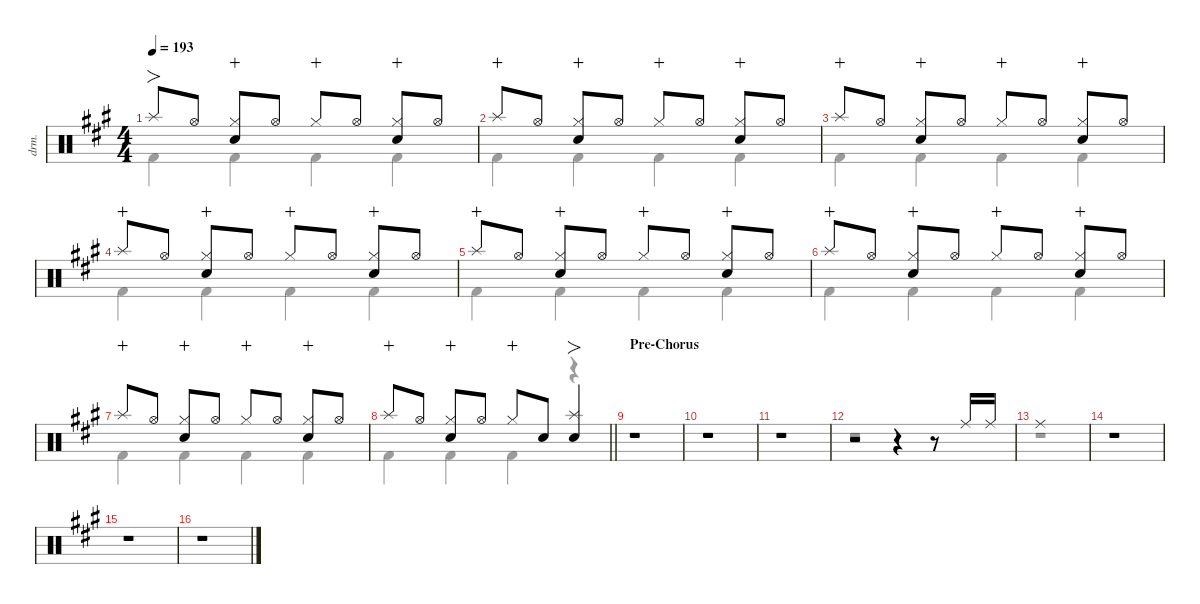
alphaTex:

\defaultSystemsLayout 4
\hideDynamics
\bracketExtendMode nobrackets
\track ("伊地知虹夏" "drm.") {instrument percussion}
\staff {score}
\articulation defaults
\voice
\ts (4 4)
\tempo 193
\clef neutral
\ks a "Splash (hit)"{acc forcenatural}.8{fo dy mf beam Up} "Hi-Hat (open)"{acc forcenatural}.8{beam Up}
("Hi-Hat (closed)"{acc forcenatural} "Snare (hit) 2"{acc forcenatural}).8{wahc beam Up} "Hi-Hat (open)"{acc forcenatural}.8{beam Up} "Hi-Hat (closed)"{acc forcenatural}.8{wahc beam Up} "Hi-Hat (open)"{acc forcenatural}.8{beam Up} ("Hi-Hat (closed)"{acc forcenatural} "Snare (hit) 2"{acc forcenatural}).8{wahc beam Up} "Hi-Hat (open)"{acc forcenatural}.8{beam Up} |
"Splash (hit)"{acc forcenatural}.8{wahc beam Up} "Hi-Hat (open)"{acc forcenatural}.8{beam Up} ("Hi-Hat (closed)"{acc forcenatural} "Snare (hit) 2"{acc forcenatural}).8{wahc beam Up} "Hi-Hat (open)"{acc forcenatural}.8{beam Up} "Hi-Hat (closed)"{acc forcenatural}.8{wahc beam Up} "Hi-Hat (open)"{acc forcenatural}.8{beam Up} ("Hi-Hat (closed)"{acc forcenatural} "Snare (hit) 2"{acc forcenatural}).8{wahc beam Up} "Hi-Hat (open)"{acc forcenatural}.8{beam Up} |
"Splash (hit)"{acc forcenatural}.8{wahc beam Up} "Hi-Hat (open)"{acc forcenatural}.8{beam Up} ("Hi-Hat (closed)"{acc forcenatural} "Snare (hit) 2"{acc forcenatural}).8{wahc beam Up} "Hi-Hat (open)"{acc forcenatural}.8{beam Up} "Hi-Hat (closed)"{acc forcenatural}.8{wahc beam Up} "Hi-Hat (open)"{acc forcenatural}.8{beam Up} ("Hi-Hat (closed)"{acc forcenatural} "Snare (hit) 2"{acc forcenatural}).8{wahc beam Up} "Hi-Hat (open)"{acc forcenatural}.8{beam Up} |
"Splash (hit)"{acc forcenatural}.8{wahc beam Up} "Hi-Hat (open)"{acc forcenatural}.8{beam Up} ("Hi-Hat (closed)"{acc forcenatural} "Snare (hit) 2"{acc forcenatural}).8{wahc beam Up} "Hi-Hat (open)"{acc forcenatural}.8{beam Up} "Hi-Hat (closed)"{acc forcenatural}.8{wahc beam Up} "Hi-Hat (open)"{acc forcenatural}.8{beam Up} ("Hi-Hat (closed)"{acc forcenatural} "Snare (hit) 2"{acc forcenatural}).8{wahc beam Up} "Hi-Hat (open)"{acc forcenatural}.8{beam Up} |
"Splash (hit)"{acc forcenatural}.8{wahc beam Up} "Hi-Hat (open)"{acc forcenatural}.8{beam Up} ("Hi-Hat (closed)"{acc forcenatural} "Snare (hit) 2"{acc forcenatural}).8{wahc beam Up} "Hi-Hat (open)"{acc forcenatural}.8{beam Up} "Hi-Hat (closed)"{acc forcenatural}.8{wahc beam Up} "Hi-Hat (open)"{acc forcenatural}.8{beam Up} ("Hi-Hat (closed)"{acc forcenatural} "Snare (hit) 2"{acc forcenatural}).8{wahc beam Up} "Hi-Hat (open)"{acc forcenatural}.8{beam Up} |
"Splash (hit)"{acc forcenatural}.8{wahc beam Up} "Hi-Hat (open)"{acc forcenatural}.8{beam Up} ("Hi-Hat (closed)"{acc forcenatural} "Snare (hit) 2"{acc forcenatural}).8{wahc beam Up} "Hi-Hat (open)"{acc forcenatural}.8{beam Up} "Hi-Hat (closed)"{acc forcenatural}.8{wahc beam Up} "Hi-Hat (open)"{acc forcenatural}.8{beam Up} ("Hi-Hat (closed)"{acc forcenatural} "Snare (hit) 2"{acc forcenatural}).8{wahc beam Up} "Hi-Hat (open)"{acc forcenatural}.8{beam Up} |
"Splash (hit)"{acc forcenatural}.8{wahc beam Up} "Hi-Hat (open)"{acc forcenatural}.8{beam Up} ("Hi-Hat (closed)"{acc forcenatural} "Snare (hit) 2"{acc forcenatural}).8{wahc beam Up} "Hi-Hat (open)"{acc forcenatural}.8{beam Up} "Hi-Hat (closed)"{acc forcenatural}.8{wahc beam Up} "Hi-Hat (open)"{acc forcenatural}.8{beam Up} ("Hi-Hat (closed)"{acc forcenatural} "Snare (hit) 2"{acc forcenatural}).8{wahc beam Up} "Hi-Hat (open)"{acc forcenatural}.8{beam Up} |
\barLineRight lightlight "Splash (hit)"{acc forcenatural}.8{wahc beam Up} "Hi-Hat (open)"{acc forcenatural}.8{beam Up}
("Hi-Hat (closed)"{acc forcenatural} "Snare (hit) 2"{acc forcenatural}).8{wahc beam Up} "Hi-Hat (open)"{acc forcenatural}.8{beam Up} "Hi-Hat (closed)"{acc forcenatural}.8{wahc beam Up} "Snare (hit) 2"{acc forcenatural}.8{beam Up} ("Splash (hit)"{acc forcenatural} "Snare (hit) 2"{acc forcenatural}).4{fo beam Up} |
\section ("" "Pre-Chorus")
r.1{beam Up} |
r.1{beam Up} |
r.1{beam Up} |
r.2{beam Up} r.4{beam Up} r.8{beam Up} "Ride (middle)"{acc forcenatural}.16{beam Up} "Ride (middle)"{acc forcenatural}.16{beam Up} |
"Ride (middle)"{acc forcenatural}.1{beam Up} |
r.1{beam Up} |
r.1{beam Up} |
r.1{beam Up}
\voice
\clef neutral
\ottava regular
\simile none
\ks a "Kick (hit) 2"{acc forcenatural}.4{dy mf beam Down} "Kick (hit) 2"{acc forcenatural}.4{beam Down} "Kick (hit) 2"{acc forcenatural}.4{beam Down} "Kick (hit) 2"{acc forcenatural}.4{beam Down}
|
"Kick (hit) 2"{acc forcenatural}.4{beam Down} "Kick (hit) 2"{acc forcenatural}.4{beam Down} "Kick (hit) 2"{acc forcenatural}.4{beam Down} "Kick (hit) 2"{acc forcenatural}.4{beam Down} |
"Kick (hit) 2"{acc forcenatural}.4{beam Down} "Kick (hit) 2"{acc forcenatural}.4{beam Down} "Kick (hit) 2"{acc forcenatural}.4{beam Down} "Kick (hit) 2"{acc forcenatural}.4{beam Down} |
"Kick (hit) 2"{acc forcenatural}.4{beam Down} "Kick (hit) 2"{acc forcenatural}.4{beam Down} "Kick (hit) 2"{acc forcenatural}.4{beam Down} "Kick (hit) 2"{acc forcenatural}.4{beam Down} |
"Kick (hit) 2"{acc forcenatural}.4{beam Down} "Kick (hit) 2"{acc forcenatural}.4{beam Down} "Kick (hit) 2"{acc forcenatural}.4{beam Down} "Kick (hit) 2"{acc forcenatural}.4{beam Down} |
"Kick (hit) 2"{acc forcenatural}.4{beam Down} "Kick (hit) 2"{acc forcenatural}.4{beam Down} "Kick (hit) 2"{acc forcenatural}.4{beam Down} "Kick (hit) 2"{acc forcenatural}.4{beam Down} |
"Kick (hit) 2"{acc forcenatural}.4{beam Down} "Kick (hit) 2"{acc forcenatural}.4{beam Down} "Kick (hit) 2"{acc forcenatural}.4{beam Down} "Kick (hit) 2"{acc forcenatural}.4{beam Down} |
\barLineRight lightlight "Kick (hit) 2"{acc forcenatural}.4{beam Down} "Kick (hit) 2"{acc forcenatural}.4{beam Down} "Kick (hit) 2"{acc forcenatural}.4{beam Down}
r.4{beam Down} |
r.1{beam Down} |
r.1{beam Down} |
r.1{beam Down} |
r.1{beam Down} |
r.1{beam Down} |
r.1{beam Down} |
r.1{beam Down} |
r.1{beam Down}
